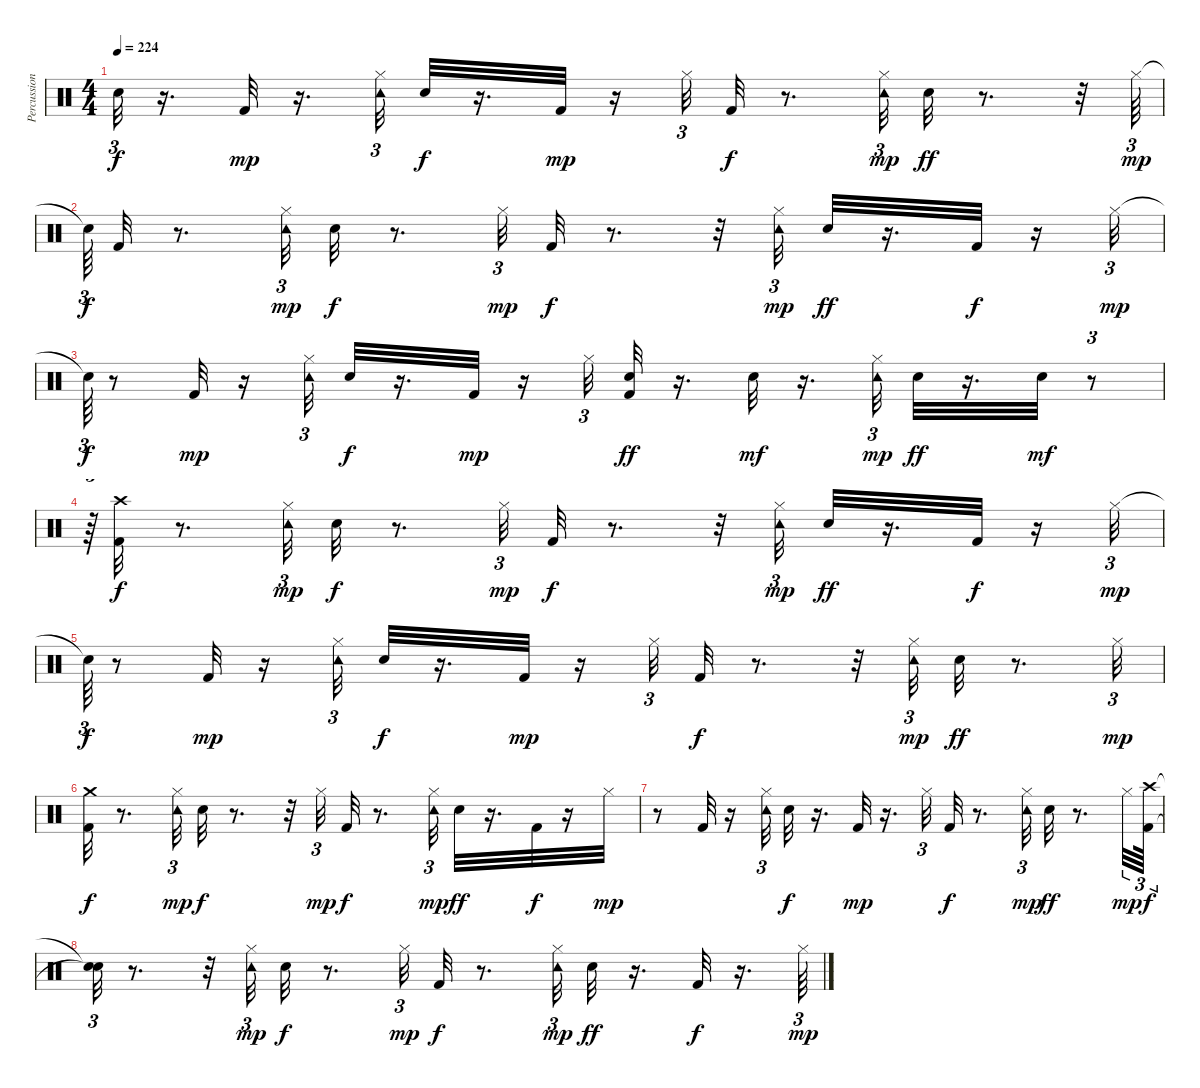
\track ("Percussion" "Percussion") {instrument percussion}
\staff {score}
\articulation defaults
\ts (4 4)
\tempo 224
\clef neutral
\ks c "Snare (hit)"{t}.32{tu (3 2) dy f}
r.16{d} "Kick (hit) 2".32{dy mp} r.16{d} ("Tambourine (hit)" "Hi-Hat (closed)").32{tu (3 2)} "Snare (hit) 2".32{dy f} r.16{d} "Kick (hit) 2".32{dy mp} r.16 "Hi-Hat (closed)".32{tu (3 2)} "Kick (hit) 2".32{dy f} r.8{d} ("Tambourine (hit)" "Hi-Hat (closed)").32{tu (3 2) dy mp} "Snare (hit) 2".32{dy ff} r.8{d} r.32 "Hi-Hat (closed)".64{tu (3 2) dy mp} |
"Snare (hit)"{t}.64{tu (3 2) dy f} "Kick (hit) 2".32 r.8{d} ("Tambourine (hit)" "Hi-Hat (closed)").32{tu (3 2) dy mp} "Snare (hit) 2".32{dy f} r.8{d} "Hi-Hat (closed)".32{tu (3 2) dy mp} "Kick (hit) 2".32{dy f} r.8{d} r.32 ("Tambourine (hit)" "Hi-Hat (closed)").32{tu (3 2) dy mp} "Snare (hit) 2".32{dy ff} r.16{d} "Kick (hit) 2".32{dy f} r.16 "Hi-Hat (closed)".32{tu (3 2) dy mp} |
"Snare (hit)"{t}.64{tu (3 2) dy f} r.8 "Kick (hit) 2".32{dy mp} r.16 ("Tambourine (hit)" "Hi-Hat (closed)").32{tu (3 2)} "Snare (hit) 2".32{dy f} r.16{d} "Kick (hit) 2".32{dy mp} r.16 "Hi-Hat (closed)".32{tu (3 2)} ("Kick (hit) 2" "Snare (hit) 2").32{dy ff} r.16{d} "Snare (hit) 2".32{dy mf} r.16{d} ("Tambourine (hit)" "Hi-Hat (closed)").32{tu (3 2) dy mp} "Snare (hit) 2".32{dy ff} r.16{d} "Snare (hit) 2".32{dy mf} r.8{tu (3 2)} |
r.64{tu (3 2)} ("Kick (hit) 2" "Crash high (hit)").32{dy f} r.8{d} ("Tambourine (hit)" "Hi-Hat (closed)").32{tu (3 2) dy mp} "Snare (hit) 2".32{dy f} r.8{d} "Hi-Hat (closed)".32{tu (3 2) dy mp} "Kick (hit) 2".32{dy f} r.8{d} r.32 ("Tambourine (hit)" "Hi-Hat (closed)").32{tu (3 2) dy mp} "Snare (hit) 2".32{dy ff} r.16{d} "Kick (hit) 2".32{dy f} r.16 "Hi-Hat (closed)".32{tu (3 2) dy mp} |
"Snare (hit)"{t}.64{tu (3 2) dy f} r.8 "Kick (hit) 2".32{dy mp} r.16 ("Tambourine (hit)" "Hi-Hat (closed)").32{tu (3 2)} "Snare (hit) 2".32{dy f} r.16{d} "Kick (hit) 2".32{dy mp} r.16 "Hi-Hat (closed)".32{tu (3 2)} "Kick (hit) 2".32{dy f} r.8{d} r.32 ("Tambourine (hit)" "Hi-Hat (closed)").32{tu (3 2) dy mp} "Snare (hit) 2".32{dy ff} r.8{d} "Hi-Hat (closed)".32{tu (3 2) dy mp} |
("Kick (hit) 2" "Crash medium (hit)").32{dy f} r.8{d} ("Tambourine (hit)" "Hi-Hat (closed)").32{tu (3 2) dy mp} "Snare (hit) 2".32{dy f} r.8{d} r.32 "Hi-Hat (closed)".32{tu (3 2) dy mp} "Kick (hit) 2".32{dy f} r.8{d} ("Tambourine (hit)" "Hi-Hat (closed)").32{tu (3 2) dy mp} "Snare (hit) 2".32{dy ff} r.16{d} "Kick (hit) 2".32{dy f} r.16 "Hi-Hat (closed)".32{dy mp} |
r.8 "Kick (hit) 2".32 r.16 ("Tambourine (hit)" "Hi-Hat (closed)").32{tu (3 2)} "Snare (hit) 2".32{dy f} r.16{d} "Kick (hit) 2".32{dy mp} r.16{d} "Hi-Hat (closed)".32{tu (3 2)} "Kick (hit) 2".32{dy f} r.8{d} ("Tambourine (hit)" "Hi-Hat (closed)").32{tu (3 2) dy mp} "Snare (hit) 2".32{dy ff} r.8{d} "Hi-Hat (closed)".32{tu (3 2) dy mp} ("Kick (hit) 2" "Crash high (hit)").64{tu (3 2) dy f} |
("Snare (hit)"{t} "Snare (hit)"{t}).32{tu (3 2)} r.8{d} r.32 ("Tambourine (hit)" "Hi-Hat (closed)").32{tu (3 2) dy mp} "Snare (hit) 2".32{dy f} r.8{d} "Hi-Hat (closed)".32{tu (3 2) dy mp} "Kick (hit) 2".32{dy f} r.8{d} ("Tambourine (hit)" "Hi-Hat (closed)").32{tu (3 2) dy mp} "Snare (hit) 2".32{dy ff} r.16{d} "Kick (hit) 2".32{dy f} r.16{d} "Hi-Hat (closed)".64{tu (3 2) dy mp}
